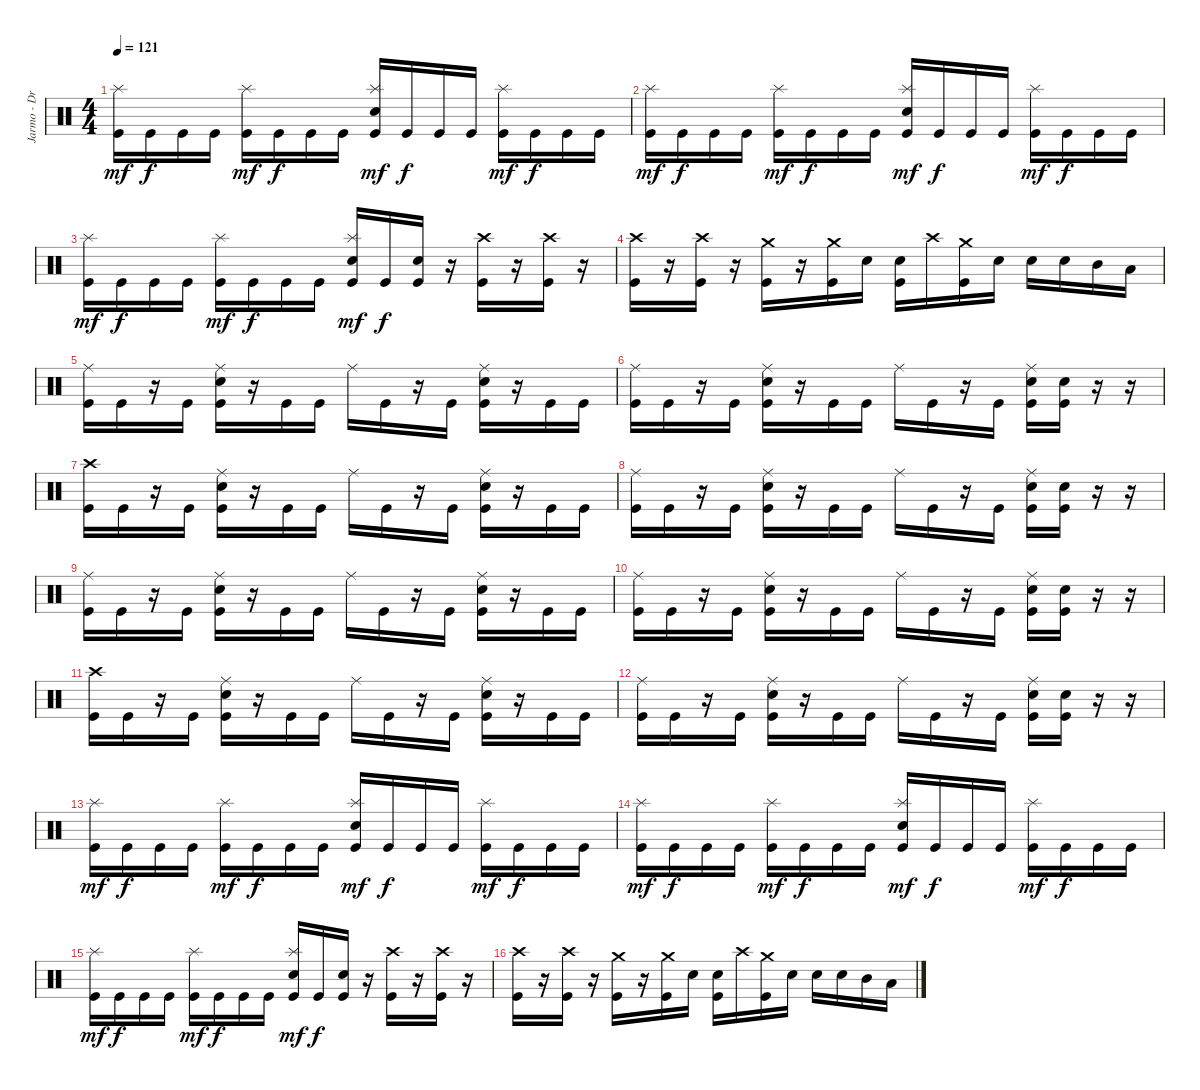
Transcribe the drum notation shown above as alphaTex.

\track ("Jarmo - Drums" "Jarmo - Dr") {instrument percussion}
\staff {score}
\articulation defaults
\ts (4 4)
\tempo 121
\clef neutral
\ks c
("Kick (hit)" "Splash (hit)").16{dy mf} "Kick (hit)".16{dy f} "Kick (hit)".16 "Kick (hit)".16 ("Kick (hit)" "Splash (hit)").16{dy mf} "Kick (hit)".16{dy f} "Kick (hit)".16 "Kick (hit)".16 ("Kick (hit)" "Electric Snare (hit)" "Splash (hit)").16{dy mf} "Kick (hit)".16{dy f} "Kick (hit)".16 "Kick (hit)".16 ("Kick (hit)" "Splash (hit)").16{dy mf} "Kick (hit)".16{dy f} "Kick (hit)".16 "Kick (hit)".16 |
("Kick (hit)" "Splash (hit)").16{dy mf} "Kick (hit)".16{dy f} "Kick (hit)".16 "Kick (hit)".16 ("Kick (hit)" "Splash (hit)").16{dy mf} "Kick (hit)".16{dy f} "Kick (hit)".16 "Kick (hit)".16 ("Kick (hit)" "Electric Snare (hit)" "Splash (hit)").16{dy mf} "Kick (hit)".16{dy f} "Kick (hit)".16 "Kick (hit)".16 ("Kick (hit)" "Splash (hit)").16{dy mf} "Kick (hit)".16{dy f} "Kick (hit)".16 "Kick (hit)".16 |
("Kick (hit)" "Splash (hit)").16{dy mf} "Kick (hit)".16{dy f} "Kick (hit)".16 "Kick (hit)".16 ("Kick (hit)" "Splash (hit)").16{dy mf} "Kick (hit)".16{dy f} "Kick (hit)".16 "Kick (hit)".16 ("Kick (hit)" "Electric Snare (hit)" "Splash (hit)").16{dy mf} "Kick (hit)".16{dy f} ("Kick (hit)" "Electric Snare (hit)").16 r.16 ("Kick (hit)" "Crash high (hit)").16 r.16 ("Kick (hit)" "Crash high (hit)").16 r.16 |
("Kick (hit)" "Crash high (hit)").16 r.16 ("Kick (hit)" "Crash high (hit)").16 r.16 ("Kick (hit)" "Crash medium (hit)").16 r.16 ("Kick (hit)" "Crash medium (hit)").16 "Electric Snare (hit)".16 ("Kick (hit)" "Electric Snare (hit)").16 "Crash high (hit)".16 ("Kick (hit)" "Crash medium (hit)").16 "Electric Snare (hit)".16 "Electric Snare (hit)".16 "Electric Snare (hit)".16 "Mid Tom (hit)".16 "Low Tom (hit)".16 |
("Kick (hit)" "Ride (middle)").16 "Kick (hit)".16 r.16 "Kick (hit)".16 ("Kick (hit)" "Electric Snare (hit)" "Ride (middle)").16 r.16 "Kick (hit)".16 "Kick (hit)".16 "Ride (middle)".16 "Kick (hit)".16 r.16 "Kick (hit)".16 ("Kick (hit)" "Electric Snare (hit)" "Ride (middle)").16 r.16 "Kick (hit)".16 "Kick (hit)".16 |
("Kick (hit)" "Ride (middle)").16 "Kick (hit)".16 r.16 "Kick (hit)".16 ("Kick (hit)" "Electric Snare (hit)" "Ride (middle)").16 r.16 "Kick (hit)".16 "Kick (hit)".16 "Ride (middle)".16 "Kick (hit)".16 r.16 "Kick (hit)".16 ("Kick (hit)" "Electric Snare (hit)" "Ride (middle)").16 ("Kick (hit)" "Electric Snare (hit)").16 r.16 r.16 |
("Kick (hit)" "Crash high (hit)").16 "Kick (hit)".16 r.16 "Kick (hit)".16 ("Kick (hit)" "Electric Snare (hit)" "Ride (middle)").16 r.16 "Kick (hit)".16 "Kick (hit)".16 "Ride (middle)".16 "Kick (hit)".16 r.16 "Kick (hit)".16 ("Kick (hit)" "Electric Snare (hit)" "Ride (middle)").16 r.16 "Kick (hit)".16 "Kick (hit)".16 |
("Kick (hit)" "Ride (middle)").16 "Kick (hit)".16 r.16 "Kick (hit)".16 ("Kick (hit)" "Electric Snare (hit)" "Ride (middle)").16 r.16 "Kick (hit)".16 "Kick (hit)".16 "Ride (middle)".16 "Kick (hit)".16 r.16 "Kick (hit)".16 ("Kick (hit)" "Electric Snare (hit)" "Ride (middle)").16 ("Kick (hit)" "Electric Snare (hit)").16 r.16 r.16 |
("Kick (hit)" "Ride (middle)").16 "Kick (hit)".16 r.16 "Kick (hit)".16 ("Kick (hit)" "Electric Snare (hit)" "Ride (middle)").16 r.16 "Kick (hit)".16 "Kick (hit)".16 "Ride (middle)".16 "Kick (hit)".16 r.16 "Kick (hit)".16 ("Kick (hit)" "Electric Snare (hit)" "Ride (middle)").16 r.16 "Kick (hit)".16 "Kick (hit)".16 |
("Kick (hit)" "Ride (middle)").16 "Kick (hit)".16 r.16 "Kick (hit)".16 ("Kick (hit)" "Electric Snare (hit)" "Ride (middle)").16 r.16 "Kick (hit)".16 "Kick (hit)".16 "Ride (middle)".16 "Kick (hit)".16 r.16 "Kick (hit)".16 ("Kick (hit)" "Electric Snare (hit)" "Ride (middle)").16 ("Kick (hit)" "Electric Snare (hit)").16 r.16 r.16 |
("Kick (hit)" "Crash high (hit)").16 "Kick (hit)".16 r.16 "Kick (hit)".16 ("Kick (hit)" "Electric Snare (hit)" "Ride (middle)").16 r.16 "Kick (hit)".16 "Kick (hit)".16 "Ride (middle)".16 "Kick (hit)".16 r.16 "Kick (hit)".16 ("Kick (hit)" "Electric Snare (hit)" "Ride (middle)").16 r.16 "Kick (hit)".16 "Kick (hit)".16 |
("Kick (hit)" "Ride (middle)").16 "Kick (hit)".16 r.16 "Kick (hit)".16 ("Kick (hit)" "Electric Snare (hit)" "Ride (middle)").16 r.16 "Kick (hit)".16 "Kick (hit)".16 "Ride (middle)".16 "Kick (hit)".16 r.16 "Kick (hit)".16 ("Kick (hit)" "Electric Snare (hit)" "Ride (middle)").16 ("Kick (hit)" "Electric Snare (hit)").16 r.16 r.16 |
("Kick (hit)" "Splash (hit)").16{dy mf} "Kick (hit)".16{dy f} "Kick (hit)".16 "Kick (hit)".16 ("Kick (hit)" "Splash (hit)").16{dy mf} "Kick (hit)".16{dy f} "Kick (hit)".16 "Kick (hit)".16 ("Kick (hit)" "Electric Snare (hit)" "Splash (hit)").16{dy mf} "Kick (hit)".16{dy f} "Kick (hit)".16 "Kick (hit)".16 ("Kick (hit)" "Splash (hit)").16{dy mf} "Kick (hit)".16{dy f} "Kick (hit)".16 "Kick (hit)".16 |
("Kick (hit)" "Splash (hit)").16{dy mf} "Kick (hit)".16{dy f} "Kick (hit)".16 "Kick (hit)".16 ("Kick (hit)" "Splash (hit)").16{dy mf} "Kick (hit)".16{dy f} "Kick (hit)".16 "Kick (hit)".16 ("Kick (hit)" "Electric Snare (hit)" "Splash (hit)").16{dy mf} "Kick (hit)".16{dy f} "Kick (hit)".16 "Kick (hit)".16 ("Kick (hit)" "Splash (hit)").16{dy mf} "Kick (hit)".16{dy f} "Kick (hit)".16 "Kick (hit)".16 |
("Kick (hit)" "Splash (hit)").16{dy mf} "Kick (hit)".16{dy f} "Kick (hit)".16 "Kick (hit)".16 ("Kick (hit)" "Splash (hit)").16{dy mf} "Kick (hit)".16{dy f} "Kick (hit)".16 "Kick (hit)".16 ("Kick (hit)" "Electric Snare (hit)" "Splash (hit)").16{dy mf} "Kick (hit)".16{dy f} ("Kick (hit)" "Electric Snare (hit)").16 r.16 ("Kick (hit)" "Crash high (hit)").16 r.16 ("Kick (hit)" "Crash high (hit)").16 r.16 |
("Kick (hit)" "Crash high (hit)").16 r.16 ("Kick (hit)" "Crash high (hit)").16 r.16 ("Kick (hit)" "Crash medium (hit)").16 r.16 ("Kick (hit)" "Crash medium (hit)").16 "Electric Snare (hit)".16 ("Kick (hit)" "Electric Snare (hit)").16 "Crash high (hit)".16 ("Kick (hit)" "Crash medium (hit)").16 "Electric Snare (hit)".16 "Electric Snare (hit)".16 "Electric Snare (hit)".16 "Mid Tom (hit)".16 "Low Tom (hit)".16
